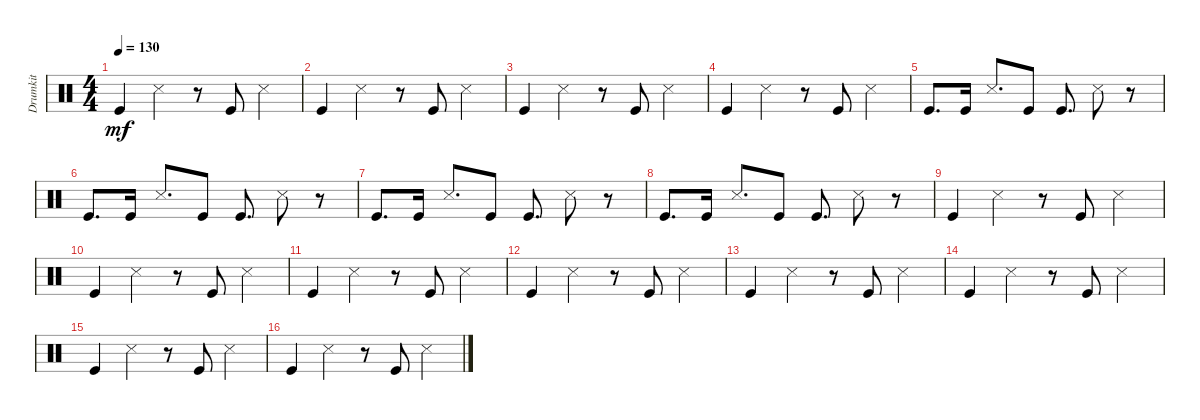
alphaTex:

\track ("Drumkit" "Drumkit") {instrument percussion}
\staff {score}
\articulation defaults
\ts (4 4)
\tempo 130
\clef neutral
\ks c "Kick (hit)".4{dy mf} "Snare (side stick) 3".4
r.8 "Kick (hit)".8 "Snare (side stick) 3".4 |
"Kick (hit)".4 "Snare (side stick) 3".4 r.8 "Kick (hit)".8 "Snare (side stick) 3".4 |
"Kick (hit)".4 "Snare (side stick) 3".4 r.8 "Kick (hit)".8 "Snare (side stick) 3".4 |
"Kick (hit)".4 "Snare (side stick) 3".4 r.8 "Kick (hit)".8 "Snare (side stick) 3".4 |
"Kick (hit)".8{d} "Kick (hit)".16 "Snare (side stick) 3".8{d} "Kick (hit)".8 "Kick (hit)".8{d} "Snare (side stick) 3".8 r.8 |
"Kick (hit)".8{d} "Kick (hit)".16 "Snare (side stick) 3".8{d} "Kick (hit)".8 "Kick (hit)".8{d} "Snare (side stick) 3".8 r.8 |
"Kick (hit)".8{d} "Kick (hit)".16 "Snare (side stick) 3".8{d} "Kick (hit)".8 "Kick (hit)".8{d} "Snare (side stick) 3".8 r.8 |
"Kick (hit)".8{d} "Kick (hit)".16 "Snare (side stick) 3".8{d} "Kick (hit)".8 "Kick (hit)".8{d} "Snare (side stick) 3".8 r.8 |
"Kick (hit)".4 "Snare (side stick) 3".4 r.8 "Kick (hit)".8 "Snare (side stick) 3".4 |
"Kick (hit)".4 "Snare (side stick) 3".4 r.8 "Kick (hit)".8 "Snare (side stick) 3".4 |
"Kick (hit)".4 "Snare (side stick) 3".4 r.8 "Kick (hit)".8 "Snare (side stick) 3".4 |
"Kick (hit)".4 "Snare (side stick) 3".4 r.8 "Kick (hit)".8 "Snare (side stick) 3".4 |
"Kick (hit)".4 "Snare (side stick) 3".4 r.8 "Kick (hit)".8 "Snare (side stick) 3".4 |
"Kick (hit)".4 "Snare (side stick) 3".4 r.8 "Kick (hit)".8 "Snare (side stick) 3".4 |
"Kick (hit)".4 "Snare (side stick) 3".4 r.8 "Kick (hit)".8 "Snare (side stick) 3".4 |
"Kick (hit)".4 "Snare (side stick) 3".4 r.8 "Kick (hit)".8 "Snare (side stick) 3".4
